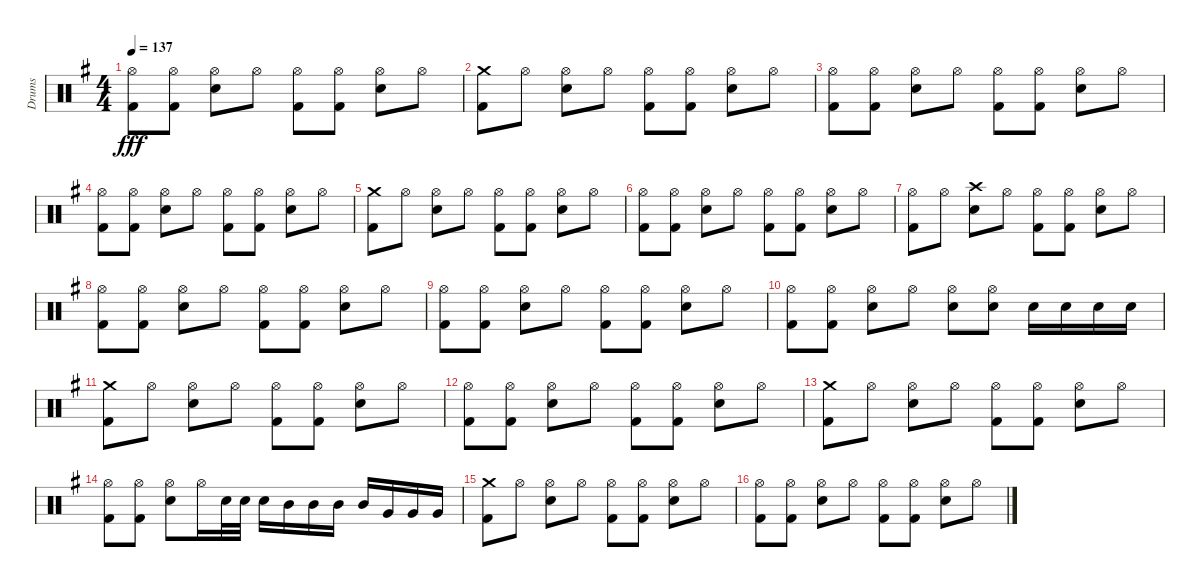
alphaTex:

\track ("Drums" "Drums") {instrument percussion}
\staff {score}
\articulation defaults
\ts (4 4)
\tempo 137
\clef neutral
\ks g
("Hi-Hat (open)" "Kick (hit) 2").8{dy fff} ("Hi-Hat (open)" "Kick (hit) 2").8 ("Hi-Hat (open)" "Electric Snare (hit)").8 "Hi-Hat (open)".8 ("Hi-Hat (open)" "Kick (hit) 2").8 ("Hi-Hat (open)" "Kick (hit) 2").8 ("Hi-Hat (open)" "Electric Snare (hit)").8 "Hi-Hat (open)".8 |
("Crash medium (hit)" "Kick (hit) 2").8 "Hi-Hat (open)".8 ("Hi-Hat (open)" "Electric Snare (hit)").8 "Hi-Hat (open)".8 ("Hi-Hat (open)" "Kick (hit) 2").8 ("Hi-Hat (open)" "Kick (hit) 2").8 ("Hi-Hat (open)" "Electric Snare (hit)").8 "Hi-Hat (open)".8 |
("Hi-Hat (open)" "Kick (hit) 2").8 ("Hi-Hat (open)" "Kick (hit) 2").8 ("Hi-Hat (open)" "Electric Snare (hit)").8 "Hi-Hat (open)".8 ("Hi-Hat (open)" "Kick (hit) 2").8 ("Hi-Hat (open)" "Kick (hit) 2").8 ("Hi-Hat (open)" "Electric Snare (hit)").8 "Hi-Hat (open)".8 |
("Hi-Hat (open)" "Kick (hit) 2").8 ("Hi-Hat (open)" "Kick (hit) 2").8 ("Hi-Hat (open)" "Electric Snare (hit)").8 "Hi-Hat (open)".8 ("Hi-Hat (open)" "Kick (hit) 2").8 ("Hi-Hat (open)" "Kick (hit) 2").8 ("Hi-Hat (open)" "Electric Snare (hit)").8 "Hi-Hat (open)".8 |
("Crash medium (hit)" "Kick (hit) 2").8 "Hi-Hat (open)".8 ("Hi-Hat (open)" "Electric Snare (hit)").8 "Hi-Hat (open)".8 ("Hi-Hat (open)" "Kick (hit) 2").8 ("Hi-Hat (open)" "Kick (hit) 2").8 ("Hi-Hat (open)" "Electric Snare (hit)").8 "Hi-Hat (open)".8 |
("Hi-Hat (open)" "Kick (hit) 2").8 ("Hi-Hat (open)" "Kick (hit) 2").8 ("Hi-Hat (open)" "Electric Snare (hit)").8 "Hi-Hat (open)".8 ("Hi-Hat (open)" "Kick (hit) 2").8 ("Hi-Hat (open)" "Kick (hit) 2").8 ("Hi-Hat (open)" "Electric Snare (hit)").8 "Hi-Hat (open)".8 |
("Hi-Hat (open)" "Kick (hit) 2").8 "Hi-Hat (open)".8 ("Crash high (hit)" "Electric Snare (hit)").8 "Hi-Hat (open)".8 ("Hi-Hat (open)" "Kick (hit) 2").8 ("Hi-Hat (open)" "Kick (hit) 2").8 ("Hi-Hat (open)" "Electric Snare (hit)").8 "Hi-Hat (open)".8 |
("Hi-Hat (open)" "Kick (hit) 2").8 ("Hi-Hat (open)" "Kick (hit) 2").8 ("Hi-Hat (open)" "Electric Snare (hit)").8 "Hi-Hat (open)".8 ("Hi-Hat (open)" "Kick (hit) 2").8 ("Hi-Hat (open)" "Kick (hit) 2").8 ("Hi-Hat (open)" "Electric Snare (hit)").8 "Hi-Hat (open)".8 |
("Hi-Hat (open)" "Kick (hit) 2").8 ("Hi-Hat (open)" "Kick (hit) 2").8 ("Hi-Hat (open)" "Electric Snare (hit)").8 "Hi-Hat (open)".8 ("Hi-Hat (open)" "Kick (hit) 2").8 ("Hi-Hat (open)" "Kick (hit) 2").8 ("Hi-Hat (open)" "Electric Snare (hit)").8 "Hi-Hat (open)".8 |
("Hi-Hat (open)" "Kick (hit) 2").8 ("Hi-Hat (open)" "Kick (hit) 2").8 ("Hi-Hat (open)" "Electric Snare (hit)").8 "Hi-Hat (open)".8 ("Hi-Hat (open)" "Electric Snare (hit)").8 ("Hi-Hat (open)" "Electric Snare (hit)").8 "Electric Snare (hit)".16 "Electric Snare (hit)".16 "Electric Snare (hit)".16 "Electric Snare (hit)".16 |
("Crash medium (hit)" "Kick (hit) 2").8 "Hi-Hat (open)".8 ("Hi-Hat (open)" "Electric Snare (hit)").8 "Hi-Hat (open)".8 ("Hi-Hat (open)" "Kick (hit) 2").8 ("Hi-Hat (open)" "Kick (hit) 2").8 ("Hi-Hat (open)" "Electric Snare (hit)").8 "Hi-Hat (open)".8 |
("Hi-Hat (open)" "Kick (hit) 2").8 ("Hi-Hat (open)" "Kick (hit) 2").8 ("Hi-Hat (open)" "Electric Snare (hit)").8 "Hi-Hat (open)".8 ("Hi-Hat (open)" "Kick (hit) 2").8 ("Hi-Hat (open)" "Kick (hit) 2").8 ("Hi-Hat (open)" "Electric Snare (hit)").8 "Hi-Hat (open)".8 |
("Crash medium (hit)" "Kick (hit) 2").8 "Hi-Hat (open)".8 ("Hi-Hat (open)" "Electric Snare (hit)").8 "Hi-Hat (open)".8 ("Hi-Hat (open)" "Kick (hit) 2").8 ("Hi-Hat (open)" "Kick (hit) 2").8 ("Hi-Hat (open)" "Electric Snare (hit)").8 "Hi-Hat (open)".8 |
("Hi-Hat (open)" "Kick (hit) 2").8 ("Hi-Hat (open)" "Kick (hit) 2").8 ("Hi-Hat (open)" "Electric Snare (hit)").8 "Hi-Hat (open)".16 "Electric Snare (hit)".32 "Electric Snare (hit)".32 "Electric Snare (hit)".16 "Mid Tom (hit)".16 "Mid Tom (hit)".16 "Mid Tom (hit)".16 "Mid Tom (hit)".16 "Very Low Tom (hit)".16 "Very Low Tom (hit)".16 "Very Low Tom (hit)".16 |
("Crash medium (hit)" "Kick (hit) 2").8 "Hi-Hat (open)".8 ("Hi-Hat (open)" "Electric Snare (hit)").8 "Hi-Hat (open)".8 ("Hi-Hat (open)" "Kick (hit) 2").8 ("Hi-Hat (open)" "Kick (hit) 2").8 ("Hi-Hat (open)" "Electric Snare (hit)").8 "Hi-Hat (open)".8 |
("Hi-Hat (open)" "Kick (hit) 2").8 ("Hi-Hat (open)" "Kick (hit) 2").8 ("Hi-Hat (open)" "Electric Snare (hit)").8 "Hi-Hat (open)".8 ("Hi-Hat (open)" "Kick (hit) 2").8 ("Hi-Hat (open)" "Kick (hit) 2").8 ("Hi-Hat (open)" "Electric Snare (hit)").8 "Hi-Hat (open)".8
